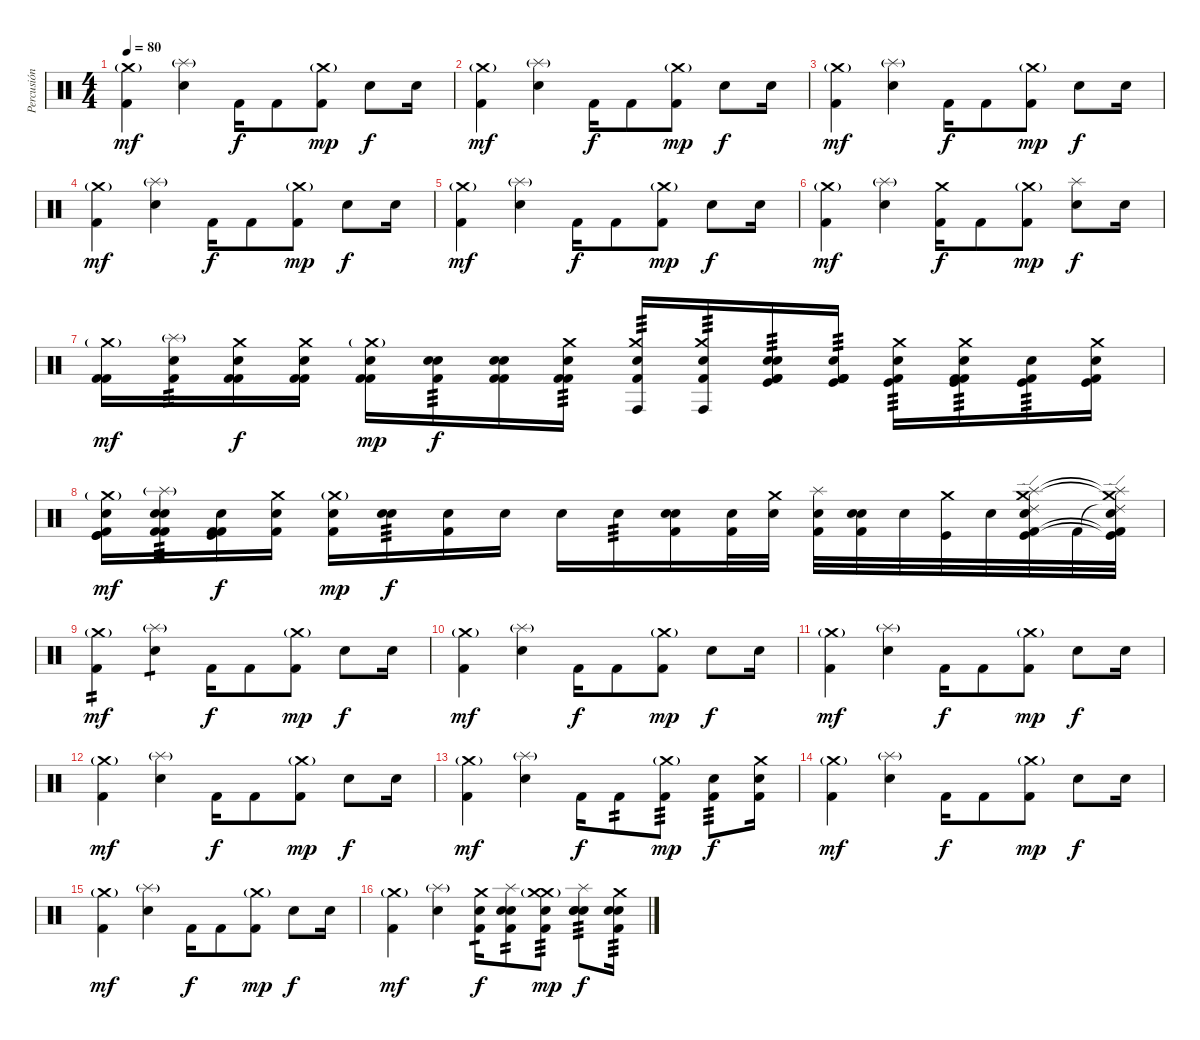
\track ("Percusión" "Percusión") {instrument percussion}
\staff {score}
\articulation defaults
\ts (4 4)
\tempo 80
\clef neutral
\ks c
("Crash medium (hit)"{g} "Kick (hit) 2").4{dy mf} ("Splash (hit)"{g} "Snare (hit) 2").4 "Kick (hit) 2".16{dy f} "Kick (hit) 2".8 ("Crash medium (hit)"{g} "Kick (hit) 2").8{dy mp} "Snare (hit) 2".8{dy f} "Snare (hit)"{x}.16 |
("Crash medium (hit)"{g} "Kick (hit) 2").4{dy mf} ("Splash (hit)"{g} "Snare (hit) 2").4 "Kick (hit) 2".16{dy f} "Kick (hit) 2".8 ("Crash medium (hit)"{g} "Kick (hit) 2").8{dy mp} "Snare (hit) 2".8{dy f} "Snare (hit)"{x}.16 |
("Crash medium (hit)"{g} "Kick (hit) 2").4{dy mf} ("Splash (hit)"{g} "Snare (hit) 2").4 "Kick (hit) 2".16{dy f} "Kick (hit) 2".8 ("Crash medium (hit)"{g} "Kick (hit) 2").8{dy mp} "Snare (hit) 2".8{dy f} "Snare (hit)"{x}.16 |
("Crash medium (hit)"{g} "Kick (hit) 2").4{dy mf} ("Splash (hit)"{g} "Snare (hit) 2").4 "Kick (hit) 2".16{dy f} "Kick (hit) 2".8 ("Crash medium (hit)"{g} "Kick (hit) 2").8{dy mp} "Snare (hit) 2".8{dy f} "Snare (hit)"{x}.16 |
("Crash medium (hit)"{g} "Kick (hit) 2").4{dy mf} ("Splash (hit)"{g} "Snare (hit) 2").4 "Kick (hit) 2".16{dy f} "Kick (hit) 2".8 ("Crash medium (hit)"{g} "Kick (hit) 2").8{dy mp} "Snare (hit) 2".8{dy f} "Snare (hit)"{x}.16 |
("Crash medium (hit)"{g} "Kick (hit) 2").4{dy mf} ("Splash (hit)"{g} "Snare (hit) 2").4 ("Crash medium (hit)" "Kick (hit) 2").16{dy f} "Kick (hit) 2".8 ("Crash medium (hit)"{g} "Kick (hit) 2").8{dy mp} ("Splash (hit)" "Snare (hit) 2").8{dy f} "Snare (hit)"{x}.16 |
("Crash medium (hit)"{g} "Kick (hit) 2" "Kick (hit) 2").16{dy mf} ("Splash (hit)"{g} "Snare (hit) 2" "Kick (hit) 2").16{tp 3} ("Snare (hit) 2" "Crash medium (hit)" "Kick (hit) 2" "Kick (hit) 2").16{dy f} ("Snare (hit) 2" "Crash medium (hit)" "Kick (hit) 2" "Kick (hit) 2").16 ("Crash medium (hit)"{g} "Snare (hit) 2" "Kick (hit) 2" "Kick (hit) 2").16{dy mp} ("Snare (hit) 2" "Snare (hit) 2" "Kick (hit) 2").16{tp 3 dy f} ("Kick (hit) 2" "Snare (hit) 2" "Snare (hit)"{x} "Kick (hit) 2").16 ("Kick (hit) 2" "Snare (hit) 2" "Crash medium (hit)" "Kick (hit) 2").16{tp 3} ("Conga high (hit)" "Snare (hit) 2" "Crash medium (hit)" "Kick (hit) 2").16{tp 3} ("Conga high (hit)" "Snare (hit) 2" "Crash medium (hit)" "Kick (hit) 2").16{tp 3} ("Snare (hit)" "Snare (hit) 2" "Kick (hit)" "Kick (hit) 2" "Kick (hit) 2").16{tp 3} ("Kick (hit) 2" "Snare (hit) 2" "Kick (hit)" "Kick (hit) 2" "Kick (hit) 2").16{tp 3} ("Snare (hit) 2" "Crash medium (hit)" "Kick (hit)" "Kick (hit) 2").16{tp 3} ("Kick (hit) 2" "Snare (hit) 2" "Crash medium (hit)" "Kick (hit)" "Kick (hit) 2").16{tp 3} ("Snare (hit) 2" "Kick (hit)" "Kick (hit) 2").16{tp 3} ("Snare (hit) 2" "Crash medium (hit)" "Kick (hit)" "Kick (hit) 2").16 |
("Crash medium (hit)"{g} "Snare (hit) 2" "Kick (hit)" "Kick (hit)" "Kick (hit) 2").16{dy mf} ("Splash (hit)"{g} "Snare (hit) 2" "Kick (hit) 2" "Snare (hit) 2" "Kick (hit) 2").16{tp 3} ("Snare (hit) 2" "Kick (hit)" "Kick (hit) 2" "Kick (hit) 2").16{dy f} ("Snare (hit) 2" "Crash medium (hit)" "Kick (hit) 2").16 ("Crash medium (hit)"{g} "Snare (hit) 2" "Kick (hit) 2").16{dy mp} ("Snare (hit) 2" "Snare (hit) 2").16{tp 3 dy f} ("Kick (hit) 2" "Snare (hit)"{x}).16 "Snare (hit) 2".16 "Snare (hit) 2".16 "Snare (hit) 2".16{tp 3} ("Snare (hit) 2" "Kick (hit) 2" "Snare (hit) 2").16 ("Snare (hit) 2" "Kick (hit) 2").32 ("Crash medium (hit)" "Snare (hit) 2").32 ("Splash (hit)" "Snare (hit) 2" "Kick (hit) 2").32 ("Snare (hit)" "Snare (hit) 2" "Kick (hit) 2").32 "Snare (hit) 2".32 ("Crash medium (hit)" "Kick (hit)").32 "Snare (hit) 2".32 ("Ride (edge) 2" "Splash (hit)" "Snare (hit) 2" "Kick (hit) 2" "Kick (hit)" "Crash medium (hit)").32 "Kick (hit) 2".32 ("Ride (edge) 2"{t} "Splash (hit)"{t} "Snare (hit) 2" "Kick (hit) 2"{t} "Kick (hit)"{t} "Crash medium (hit)"{t}).32 |
("Crash medium (hit)"{g} "Kick (hit) 2").4{tp 2 dy mf} ("Splash (hit)"{g} "Snare (hit) 2").4{tp 1} "Kick (hit) 2".16{dy f} "Kick (hit) 2".8 ("Crash medium (hit)"{g} "Kick (hit) 2").8{dy mp} "Snare (hit) 2".8{dy f} "Snare (hit)"{x}.16 |
("Crash medium (hit)"{g} "Kick (hit) 2").4{dy mf} ("Splash (hit)"{g} "Snare (hit) 2").4 "Kick (hit) 2".16{dy f} "Kick (hit) 2".8 ("Crash medium (hit)"{g} "Kick (hit) 2").8{dy mp} "Snare (hit) 2".8{dy f} "Snare (hit) 2".16 |
("Crash medium (hit)"{g} "Kick (hit) 2").4{dy mf} ("Splash (hit)"{g} "Snare (hit) 2").4 "Kick (hit) 2".16{dy f} "Kick (hit) 2".8 ("Crash medium (hit)"{g} "Kick (hit) 2").8{dy mp} "Snare (hit) 2".8{dy f} "Snare (hit) 2".16 |
("Crash medium (hit)"{g} "Kick (hit) 2").4{dy mf} ("Splash (hit)"{g} "Snare (hit) 2").4 "Kick (hit) 2".16{dy f} "Kick (hit) 2".8 ("Crash medium (hit)"{g} "Kick (hit) 2").8{dy mp} "Snare (hit) 2".8{dy f} "Snare (hit) 2".16 |
("Crash medium (hit)"{g} "Kick (hit) 2").4{dy mf} ("Splash (hit)"{g} "Snare (hit) 2").4 "Kick (hit) 2".16{dy f} "Kick (hit) 2".8{tp 2} ("Crash medium (hit)"{g} "Kick (hit) 2").8{tp 3 dy mp} ("Kick (hit) 2" "Snare (hit) 2").8{tp 3 dy f} ("Crash medium (hit)" "Kick (hit) 2" "Snare (hit) 2").16 |
("Crash medium (hit)"{g} "Kick (hit) 2").4{dy mf} ("Splash (hit)"{g} "Snare (hit) 2").4 "Kick (hit) 2".16{dy f} "Kick (hit) 2".8 ("Crash medium (hit)"{g} "Kick (hit) 2").8{dy mp} "Snare (hit) 2".8{dy f} "Snare (hit)"{x}.16 |
("Crash medium (hit)"{g} "Kick (hit) 2").4{dy mf} ("Splash (hit)"{g} "Snare (hit) 2").4 "Kick (hit) 2".16{dy f} "Kick (hit) 2".8 ("Crash medium (hit)"{g} "Kick (hit) 2").8{dy mp} "Snare (hit) 2".8{dy f} "Snare (hit)"{x}.16 |
("Crash medium (hit)"{g} "Kick (hit) 2").4{dy mf} ("Splash (hit)"{g} "Snare (hit) 2").4 ("Crash medium (hit)" "Snare (hit) 2"{pm} "Kick (hit) 2").16{tp 1 dy f} ("Splash (hit)" "Snare (hit) 2" "Kick (hit) 2" "Snare (hit) 2").8{tp 2} ("Crash medium (hit)"{g} "Crash medium (hit)" "Snare (hit) 2" "Kick (hit) 2").8{tp 3 dy mp} ("Splash (hit)" "Snare (hit) 2" "Snare (hit) 2" "Snare (hit) 2").8{tp 3 dy f} ("Crash medium (hit)" "Snare (hit) 2" "Kick (hit) 2" "Snare (hit) 2").16{tp 3}
